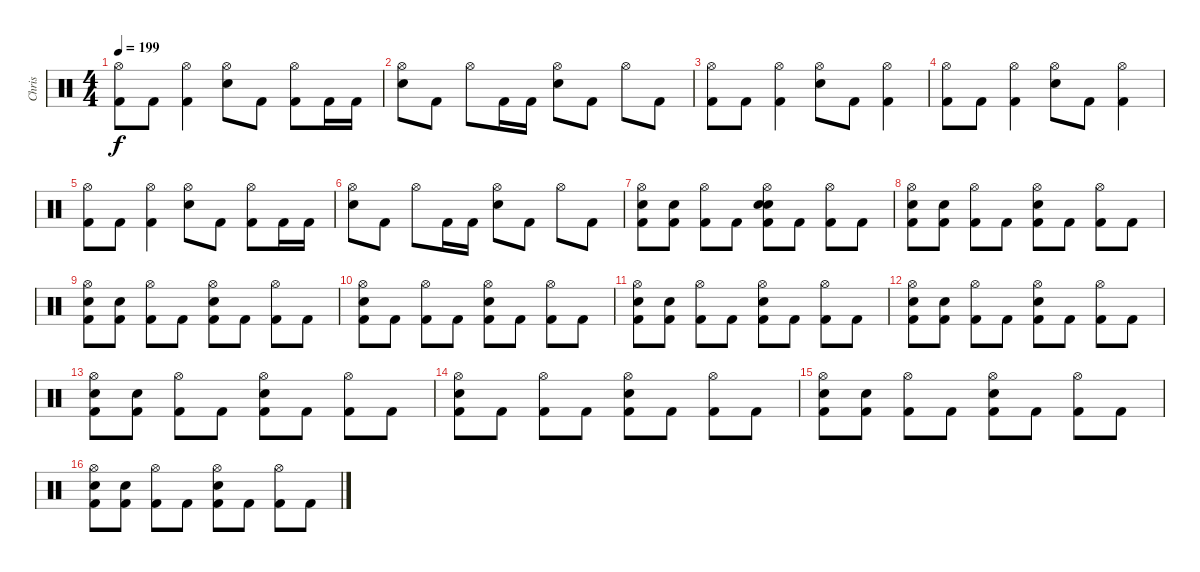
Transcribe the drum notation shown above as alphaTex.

\track ("Chris" "Chris") {instrument percussion}
\staff {score}
\articulation defaults
\ts (4 4)
\tempo 199
\clef neutral
\ks c
("Hi-Hat (open)" "Kick (hit) 2").8{dy f} "Kick (hit) 2".8 ("Hi-Hat (open)" "Kick (hit) 2").4 ("Hi-Hat (open)" "Electric Snare (hit)").8 "Kick (hit) 2".8 ("Hi-Hat (open)" "Kick (hit) 2").8 "Kick (hit) 2".16 "Kick (hit) 2".16 |
("Hi-Hat (open)" "Electric Snare (hit)").8 "Kick (hit) 2".8 "Hi-Hat (open)".8 "Kick (hit) 2".16 "Kick (hit) 2".16 ("Hi-Hat (open)" "Electric Snare (hit)").8 "Kick (hit) 2".8 "Hi-Hat (open)".8 "Kick (hit) 2".8 |
("Hi-Hat (open)" "Kick (hit) 2").8 "Kick (hit) 2".8 ("Hi-Hat (open)" "Kick (hit) 2").4 ("Hi-Hat (open)" "Electric Snare (hit)").8 "Kick (hit) 2".8 ("Hi-Hat (open)" "Kick (hit) 2").4 |
("Hi-Hat (open)" "Kick (hit) 2").8 "Kick (hit) 2".8 ("Hi-Hat (open)" "Kick (hit) 2").4 ("Hi-Hat (open)" "Electric Snare (hit)").8 "Kick (hit) 2".8 ("Hi-Hat (open)" "Kick (hit) 2").4 |
("Hi-Hat (open)" "Kick (hit) 2").8 "Kick (hit) 2".8 ("Hi-Hat (open)" "Kick (hit) 2").4 ("Hi-Hat (open)" "Electric Snare (hit)").8 "Kick (hit) 2".8 ("Hi-Hat (open)" "Kick (hit) 2").8 "Kick (hit) 2".16 "Kick (hit) 2".16 |
("Hi-Hat (open)" "Electric Snare (hit)").8 "Kick (hit) 2".8 "Hi-Hat (open)".8 "Kick (hit) 2".16 "Kick (hit) 2".16 ("Hi-Hat (open)" "Electric Snare (hit)").8 "Kick (hit) 2".8 "Hi-Hat (open)".8 "Kick (hit) 2".8 |
("Hi-Hat (open)" "Kick (hit) 2" "Electric Snare (hit)").8 ("Kick (hit) 2" "Electric Snare (hit)").8 ("Hi-Hat (open)" "Kick (hit) 2").8 "Kick (hit) 2".8 ("Hi-Hat (open)" "Kick (hit) 2" "Snare (hit) 2" "Electric Snare (hit)").8 "Kick (hit) 2".8 ("Hi-Hat (open)" "Kick (hit) 2").8 "Kick (hit) 2".8 |
("Hi-Hat (open)" "Kick (hit) 2" "Electric Snare (hit)").8 ("Kick (hit) 2" "Electric Snare (hit)").8 ("Hi-Hat (open)" "Kick (hit) 2").8 "Kick (hit) 2".8 ("Hi-Hat (open)" "Kick (hit) 2" "Electric Snare (hit)").8 "Kick (hit) 2".8 ("Hi-Hat (open)" "Kick (hit) 2").8 "Kick (hit) 2".8 |
("Hi-Hat (open)" "Kick (hit) 2" "Electric Snare (hit)").8 ("Kick (hit) 2" "Electric Snare (hit)").8 ("Hi-Hat (open)" "Kick (hit) 2").8 "Kick (hit) 2".8 ("Hi-Hat (open)" "Kick (hit) 2" "Electric Snare (hit)").8 "Kick (hit) 2".8 ("Hi-Hat (open)" "Kick (hit) 2").8 "Kick (hit) 2".8 |
("Hi-Hat (open)" "Kick (hit) 2" "Electric Snare (hit)").8 "Kick (hit) 2".8 ("Hi-Hat (open)" "Kick (hit) 2").8 "Kick (hit) 2".8 ("Hi-Hat (open)" "Kick (hit) 2" "Electric Snare (hit)").8 "Kick (hit) 2".8 ("Hi-Hat (open)" "Kick (hit) 2").8 "Kick (hit) 2".8 |
("Hi-Hat (open)" "Kick (hit) 2" "Electric Snare (hit)").8 ("Kick (hit) 2" "Electric Snare (hit)").8 ("Hi-Hat (open)" "Kick (hit) 2").8 "Kick (hit) 2".8 ("Hi-Hat (open)" "Kick (hit) 2" "Electric Snare (hit)").8 "Kick (hit) 2".8 ("Hi-Hat (open)" "Kick (hit) 2").8 "Kick (hit) 2".8 |
("Hi-Hat (open)" "Kick (hit) 2" "Electric Snare (hit)").8 ("Kick (hit) 2" "Electric Snare (hit)").8 ("Hi-Hat (open)" "Kick (hit) 2").8 "Kick (hit) 2".8 ("Hi-Hat (open)" "Kick (hit) 2" "Electric Snare (hit)").8 "Kick (hit) 2".8 ("Hi-Hat (open)" "Kick (hit) 2").8 "Kick (hit) 2".8 |
("Hi-Hat (open)" "Kick (hit) 2" "Electric Snare (hit)").8 ("Kick (hit) 2" "Electric Snare (hit)").8 ("Hi-Hat (open)" "Kick (hit) 2").8 "Kick (hit) 2".8 ("Hi-Hat (open)" "Kick (hit) 2" "Electric Snare (hit)").8 "Kick (hit) 2".8 ("Hi-Hat (open)" "Kick (hit) 2").8 "Kick (hit) 2".8 |
("Hi-Hat (open)" "Kick (hit) 2" "Electric Snare (hit)").8 "Kick (hit) 2".8 ("Hi-Hat (open)" "Kick (hit) 2").8 "Kick (hit) 2".8 ("Hi-Hat (open)" "Kick (hit) 2" "Electric Snare (hit)").8 "Kick (hit) 2".8 ("Hi-Hat (open)" "Kick (hit) 2").8 "Kick (hit) 2".8 |
("Hi-Hat (open)" "Kick (hit) 2" "Electric Snare (hit)").8 ("Kick (hit) 2" "Electric Snare (hit)").8 ("Hi-Hat (open)" "Kick (hit) 2").8 "Kick (hit) 2".8 ("Hi-Hat (open)" "Kick (hit) 2" "Electric Snare (hit)").8 "Kick (hit) 2".8 ("Hi-Hat (open)" "Kick (hit) 2").8 "Kick (hit) 2".8 |
("Hi-Hat (open)" "Kick (hit) 2" "Electric Snare (hit)").8 ("Kick (hit) 2" "Electric Snare (hit)").8 ("Hi-Hat (open)" "Kick (hit) 2").8 "Kick (hit) 2".8 ("Hi-Hat (open)" "Kick (hit) 2" "Electric Snare (hit)").8 "Kick (hit) 2".8 ("Hi-Hat (open)" "Kick (hit) 2").8 "Kick (hit) 2".8
